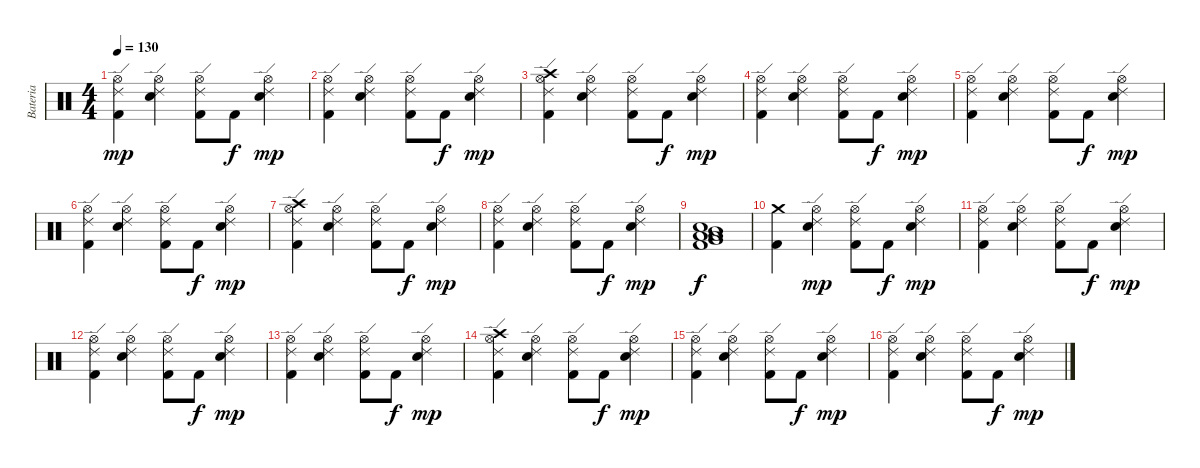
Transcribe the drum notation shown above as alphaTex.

\track ("Bateria" "Bateria") {instrument percussion}
\staff {score}
\articulation defaults
\ts (4 4)
\tempo 130
\clef neutral
\ks c
("Hi-Hat (open)" "Ride (edge) 2" "Kick (hit) 2").4{dy mp} ("Electric Snare (hit)" "Hi-Hat (open)" "Ride (edge) 2").4 ("Hi-Hat (open)" "Ride (edge) 2" "Kick (hit) 2").8 "Kick (hit) 2".8{dy f} ("Electric Snare (hit)" "Hi-Hat (open)" "Ride (edge) 2").4{dy mp} |
("Hi-Hat (open)" "Ride (edge) 2" "Kick (hit) 2").4 ("Electric Snare (hit)" "Hi-Hat (open)" "Ride (edge) 2").4 ("Hi-Hat (open)" "Ride (edge) 2" "Kick (hit) 2").8 "Kick (hit) 2".8{dy f} ("Electric Snare (hit)" "Hi-Hat (open)" "Ride (edge) 2").4{dy mp} |
("Crash high (hit)" "Hi-Hat (open)" "Ride (edge) 2" "Kick (hit) 2").4 ("Electric Snare (hit)" "Hi-Hat (open)" "Ride (edge) 2").4 ("Hi-Hat (open)" "Ride (edge) 2" "Kick (hit) 2").8 "Kick (hit) 2".8{dy f} ("Electric Snare (hit)" "Hi-Hat (open)" "Ride (edge) 2").4{dy mp} |
("Hi-Hat (open)" "Ride (edge) 2" "Kick (hit) 2").4 ("Electric Snare (hit)" "Hi-Hat (open)" "Ride (edge) 2").4 ("Hi-Hat (open)" "Ride (edge) 2" "Kick (hit) 2").8 "Kick (hit) 2".8{dy f} ("Electric Snare (hit)" "Hi-Hat (open)" "Ride (edge) 2").4{dy mp} |
("Hi-Hat (open)" "Ride (edge) 2" "Kick (hit) 2").4 ("Electric Snare (hit)" "Hi-Hat (open)" "Ride (edge) 2").4 ("Hi-Hat (open)" "Ride (edge) 2" "Kick (hit) 2").8 "Kick (hit) 2".8{dy f} ("Electric Snare (hit)" "Hi-Hat (open)" "Ride (edge) 2").4{dy mp} |
("Hi-Hat (open)" "Ride (edge) 2" "Kick (hit) 2").4 ("Electric Snare (hit)" "Hi-Hat (open)" "Ride (edge) 2").4 ("Hi-Hat (open)" "Ride (edge) 2" "Kick (hit) 2").8 "Kick (hit) 2".8{dy f} ("Electric Snare (hit)" "Hi-Hat (open)" "Ride (edge) 2").4{dy mp} |
("Crash high (hit)" "Hi-Hat (open)" "Ride (edge) 2" "Kick (hit) 2").4 ("Electric Snare (hit)" "Hi-Hat (open)" "Ride (edge) 2").4 ("Hi-Hat (open)" "Ride (edge) 2" "Kick (hit) 2").8 "Kick (hit) 2".8{dy f} ("Electric Snare (hit)" "Hi-Hat (open)" "Ride (edge) 2").4{dy mp} |
("Hi-Hat (open)" "Ride (edge) 2" "Kick (hit) 2").4 ("Electric Snare (hit)" "Hi-Hat (open)" "Ride (edge) 2").4 ("Hi-Hat (open)" "Ride (edge) 2" "Kick (hit) 2").8 "Kick (hit) 2".8{dy f} ("Electric Snare (hit)" "Hi-Hat (open)" "Ride (edge) 2").4{dy mp} |
("Electric Snare (hit)" "Low Floor Tom (hit)" "Very Low Tom (hit)" "Low Tom (hit)" "Mid Tom (hit)" "Kick (hit) 2").1{dy f} |
("Crash medium (hit)" "Kick (hit) 2").4 ("Electric Snare (hit)" "Hi-Hat (open)" "Ride (edge) 2").4{dy mp} ("Hi-Hat (open)" "Ride (edge) 2" "Kick (hit) 2").8 "Kick (hit) 2".8{dy f} ("Electric Snare (hit)" "Hi-Hat (open)" "Ride (edge) 2").4{dy mp} |
("Hi-Hat (open)" "Ride (edge) 2" "Kick (hit) 2").4 ("Electric Snare (hit)" "Hi-Hat (open)" "Ride (edge) 2").4 ("Hi-Hat (open)" "Ride (edge) 2" "Kick (hit) 2").8 "Kick (hit) 2".8{dy f} ("Electric Snare (hit)" "Hi-Hat (open)" "Ride (edge) 2").4{dy mp} |
("Hi-Hat (open)" "Ride (edge) 2" "Kick (hit) 2").4 ("Electric Snare (hit)" "Hi-Hat (open)" "Ride (edge) 2").4 ("Hi-Hat (open)" "Ride (edge) 2" "Kick (hit) 2").8 "Kick (hit) 2".8{dy f} ("Electric Snare (hit)" "Hi-Hat (open)" "Ride (edge) 2").4{dy mp} |
("Hi-Hat (open)" "Ride (edge) 2" "Kick (hit) 2").4 ("Electric Snare (hit)" "Hi-Hat (open)" "Ride (edge) 2").4 ("Hi-Hat (open)" "Ride (edge) 2" "Kick (hit) 2").8 "Kick (hit) 2".8{dy f} ("Electric Snare (hit)" "Hi-Hat (open)" "Ride (edge) 2").4{dy mp} |
("Crash high (hit)" "Hi-Hat (open)" "Ride (edge) 2" "Kick (hit) 2").4 ("Electric Snare (hit)" "Hi-Hat (open)" "Ride (edge) 2").4 ("Hi-Hat (open)" "Ride (edge) 2" "Kick (hit) 2").8 "Kick (hit) 2".8{dy f} ("Electric Snare (hit)" "Hi-Hat (open)" "Ride (edge) 2").4{dy mp} |
("Hi-Hat (open)" "Ride (edge) 2" "Kick (hit) 2").4 ("Electric Snare (hit)" "Hi-Hat (open)" "Ride (edge) 2").4 ("Hi-Hat (open)" "Ride (edge) 2" "Kick (hit) 2").8 "Kick (hit) 2".8{dy f} ("Electric Snare (hit)" "Hi-Hat (open)" "Ride (edge) 2").4{dy mp} |
("Hi-Hat (open)" "Ride (edge) 2" "Kick (hit) 2").4 ("Electric Snare (hit)" "Hi-Hat (open)" "Ride (edge) 2").4 ("Hi-Hat (open)" "Ride (edge) 2" "Kick (hit) 2").8 "Kick (hit) 2".8{dy f} ("Electric Snare (hit)" "Hi-Hat (open)" "Ride (edge) 2").4{dy mp}
